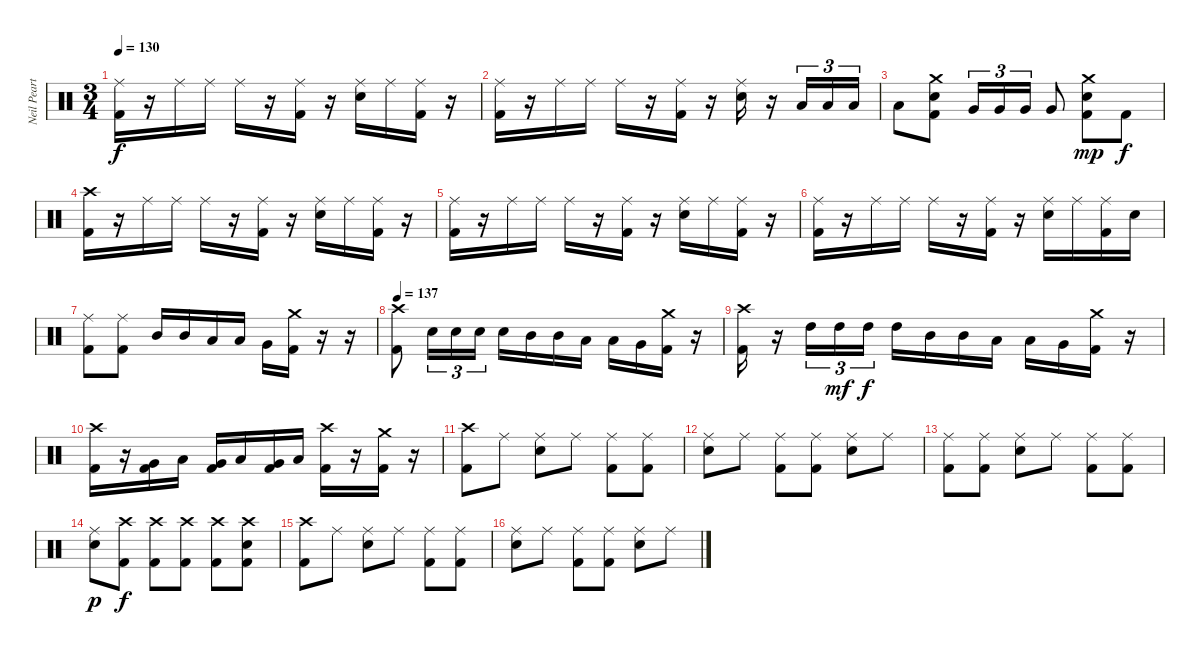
\track ("Neil Peart" "Neil Peart") {instrument percussion}
\staff {score}
\articulation defaults
\ts (3 4)
\tempo 130
\clef neutral
\ks c
("Ride (middle)" "Kick (hit) 2").16{dy f} r.16 "Ride (middle)".16 "Ride (middle)".16 "Ride (middle)".16 r.16 ("Ride (middle)" "Kick (hit) 2").16 r.16 ("Ride (middle)" "Snare (hit) 2").16 "Ride (middle)".16 ("Ride (middle)" "Kick (hit) 2").16 r.16 |
("Ride (middle)" "Kick (hit) 2").16 r.16 "Ride (middle)".16 "Ride (middle)".16 "Ride (middle)".16 r.16 ("Ride (middle)" "Kick (hit) 2").16 r.16 ("Ride (middle)" "Snare (hit) 2").16 r.16 "Low Tom (hit)".16{tu (3 2)} "Low Tom (hit)".16{tu (3 2)} "Low Tom (hit)".16{tu (3 2)} |
"Low Tom (hit)".8 ("Crash medium (hit)" "Snare (hit) 2" "Kick (hit) 2").8 "Very Low Tom (hit)".16{tu (3 2)} "Very Low Tom (hit)".16{tu (3 2)} "Very Low Tom (hit)".16{tu (3 2)} "Very Low Tom (hit)".8 ("Crash medium (hit)" "Snare (hit) 2" "Kick (hit) 2").8{dy mp} "Kick (hit) 2".8{dy f} |
("Crash high (hit)" "Kick (hit) 2").16 r.16 "Ride (middle)".16 "Ride (middle)".16 "Ride (middle)".16 r.16 ("Ride (middle)" "Kick (hit) 2").16 r.16 ("Ride (middle)" "Snare (hit) 2").16 "Ride (middle)".16 ("Ride (middle)" "Kick (hit) 2").16 r.16 |
("Ride (middle)" "Kick (hit) 2").16 r.16 "Ride (middle)".16 "Ride (middle)".16 "Ride (middle)".16 r.16 ("Ride (middle)" "Kick (hit) 2").16 r.16 ("Ride (middle)" "Snare (hit) 2").16 "Ride (middle)".16 ("Ride (middle)" "Kick (hit) 2").16 r.16 |
("Ride (middle)" "Kick (hit) 2").16 r.16 "Ride (middle)".16 "Ride (middle)".16 "Ride (middle)".16 r.16 ("Ride (middle)" "Kick (hit) 2").16 r.16 ("Ride (middle)" "Snare (hit) 2").16 "Ride (middle)".16 ("Ride (middle)" "Kick (hit) 2").16 "Snare (hit) 2".16 |
("Ride (middle)" "Kick (hit) 2").8 ("Ride (middle)" "Kick (hit) 2").8 "Mid Tom (hit)".16 "Mid Tom (hit)".16 "Low Tom (hit)".16 "Low Tom (hit)".16 "Very Low Tom (hit)".16 ("Crash medium (hit)" "Kick (hit) 2").16 r.16 r.16 |
\tempo 137
("Crash high (hit)" "Kick (hit) 2").8 "Snare (hit) 2".16{tu (3 2)} "Snare (hit) 2".16{tu (3 2)} "Snare (hit) 2".16{tu (3 2)} "Snare (hit) 2".16 "Mid Tom (hit)".16 "Mid Tom (hit)".16 "Low Tom (hit)".16 "Low Tom (hit)".16 "Very Low Tom (hit)".16 ("Crash medium (hit)" "Kick (hit) 2").16 r.16 |
("Crash high (hit)" "Kick (hit) 2").16 r.16 "High Tom (hit)".16{tu (3 2)} "High Tom (hit)".16{tu (3 2) dy mf} "High Tom (hit)".16{tu (3 2) dy f} "High Tom (hit)".16 "Mid Tom (hit)".16 "Mid Tom (hit)".16 "Low Tom (hit)".16 "Low Tom (hit)".16 "Very Low Tom (hit)".16 ("Crash medium (hit)" "Kick (hit) 2").16 r.16 |
("Crash high (hit)" "Kick (hit) 2").16 r.16 ("Very Low Tom (hit)" "Kick (hit) 2").16 "Low Tom (hit)".16 ("Very Low Tom (hit)" "Kick (hit) 2").16 "Low Tom (hit)".16 ("Very Low Tom (hit)" "Kick (hit) 2").16 "Low Tom (hit)".16 ("Crash high (hit)" "Kick (hit) 2").16 r.16 ("Crash medium (hit)" "Kick (hit) 2").16 r.16 |
("Crash high (hit)" "Kick (hit) 2").8 "Ride (middle)".8 ("Ride (middle)" "Snare (hit) 2").8 "Ride (middle)".8 ("Ride (middle)" "Kick (hit) 2").8 ("Ride (middle)" "Kick (hit) 2").8 |
("Ride (middle)" "Snare (hit) 2").8 "Ride (middle)".8 ("Ride (middle)" "Kick (hit) 2").8 ("Ride (middle)" "Kick (hit) 2").8 ("Ride (middle)" "Snare (hit) 2").8 "Ride (middle)".8 |
("Ride (middle)" "Kick (hit) 2").8 ("Ride (middle)" "Kick (hit) 2").8 ("Ride (middle)" "Snare (hit) 2").8 "Ride (middle)".8 ("Ride (middle)" "Kick (hit) 2").8 ("Ride (middle)" "Kick (hit) 2").8 |
("Ride (middle)" "Snare (hit) 2").8{dy p} ("Crash high (hit)" "Kick (hit) 2").8{dy f} ("Crash high (hit)" "Kick (hit) 2").8 ("Crash high (hit)" "Kick (hit) 2").8 ("Crash high (hit)" "Kick (hit) 2").8 ("Crash high (hit)" "Snare (hit) 2" "Kick (hit) 2").8 |
("Crash high (hit)" "Kick (hit) 2").8 "Ride (middle)".8 ("Ride (middle)" "Snare (hit) 2").8 "Ride (middle)".8 ("Ride (middle)" "Kick (hit) 2").8 ("Ride (middle)" "Kick (hit) 2").8 |
("Ride (middle)" "Snare (hit) 2").8 "Ride (middle)".8 ("Ride (middle)" "Kick (hit) 2").8 ("Ride (middle)" "Kick (hit) 2").8 ("Ride (middle)" "Snare (hit) 2").8 "Ride (middle)".8
